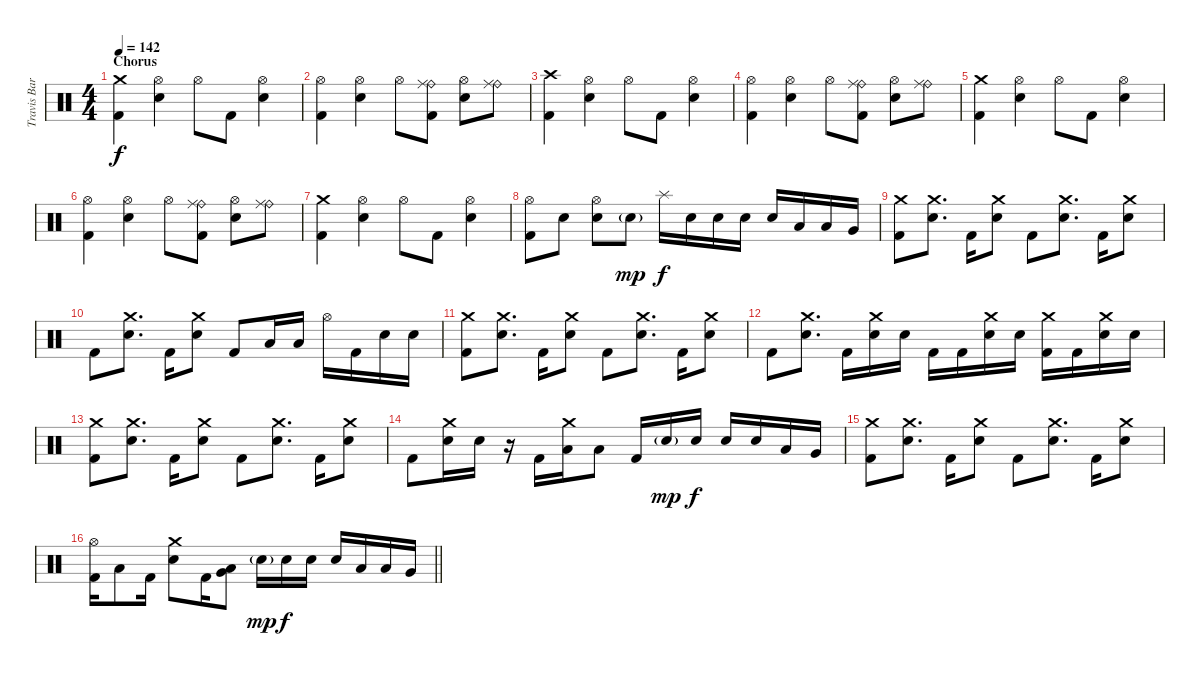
\track ("Travis Barker - Drums" "Travis Bar") {instrument percussion}
\staff {score}
\articulation defaults
\ts (4 4)
\section ("" "Chorus")
\tempo 142
\clef neutral
\ks c
("Crash medium (hit)" "Kick (hit) 2").4{dy f} ("Hi-Hat (open)" "Electric Snare (hit)").4 "Hi-Hat (open)".8 "Kick (hit) 2".8 ("Hi-Hat (open)" "Electric Snare (hit)").4 |
("Hi-Hat (open)" "Kick (hit) 2").4 ("Hi-Hat (open)" "Electric Snare (hit)").4 "Hi-Hat (open)".8 ("Ride (bell)" "Ride (middle)" "Kick (hit) 2").8 ("Hi-Hat (open)" "Electric Snare (hit)").8 ("Ride (bell)" "Ride (middle)").8 |
("Crash high (hit)" "Kick (hit) 2").4 ("Hi-Hat (open)" "Electric Snare (hit)").4 "Hi-Hat (open)".8 "Kick (hit) 2".8 ("Hi-Hat (open)" "Electric Snare (hit)").4 |
("Hi-Hat (open)" "Kick (hit) 2").4 ("Hi-Hat (open)" "Electric Snare (hit)").4 "Hi-Hat (open)".8 ("Ride (bell)" "Ride (middle)" "Kick (hit) 2").8 ("Hi-Hat (open)" "Electric Snare (hit)").8 ("Ride (bell)" "Ride (middle)").8 |
("Crash medium (hit)" "Kick (hit) 2").4 ("Hi-Hat (open)" "Electric Snare (hit)").4 "Hi-Hat (open)".8 "Kick (hit) 2".8 ("Hi-Hat (open)" "Electric Snare (hit)").4 |
("Hi-Hat (open)" "Kick (hit) 2").4 ("Hi-Hat (open)" "Electric Snare (hit)").4 "Hi-Hat (open)".8 ("Ride (bell)" "Ride (middle)" "Kick (hit) 2").8 ("Hi-Hat (open)" "Electric Snare (hit)").8 ("Ride (bell)" "Ride (middle)").8 |
("Crash medium (hit)" "Kick (hit) 2").4 ("Hi-Hat (open)" "Electric Snare (hit)").4 "Hi-Hat (open)".8 "Kick (hit) 2".8 ("Hi-Hat (open)" "Electric Snare (hit)").4 |
("Hi-Hat (open)" "Kick (hit) 2").8 "Electric Snare (hit)".8 ("Hi-Hat (open)" "Electric Snare (hit)").8 "Electric Snare (hit)"{g}.8{dy mp} "Splash (hit)".16{dy f} "Electric Snare (hit)".16 "Electric Snare (hit)".16 "Electric Snare (hit)".16 "Electric Snare (hit)".16 "Low Tom (hit)".16 "Low Tom (hit)".16 "Very Low Tom (hit)".16 |
("Crash medium (hit)" "Kick (hit) 2").8 ("Crash medium (hit)" "Electric Snare (hit)").8{d} "Kick (hit) 2".16 ("Crash medium (hit)" "Electric Snare (hit)").8 "Kick (hit) 2".8 ("Crash medium (hit)" "Electric Snare (hit)").8{d} "Kick (hit) 2".16 ("Crash medium (hit)" "Electric Snare (hit)").8 |
"Kick (hit) 2".8 ("Crash medium (hit)" "Electric Snare (hit)").8{d} "Kick (hit) 2".16 ("Crash medium (hit)" "Electric Snare (hit)").8 "Kick (hit) 2".8 "Low Tom (hit)".16 "Low Tom (hit)".16 "Hi-Hat (open)".16 "Kick (hit) 2".16 "Electric Snare (hit)".16 "Electric Snare (hit)".16 |
("Crash medium (hit)" "Kick (hit) 2").8 ("Crash medium (hit)" "Electric Snare (hit)").8{d} "Kick (hit) 2".16 ("Crash medium (hit)" "Electric Snare (hit)").8 "Kick (hit) 2".8 ("Crash medium (hit)" "Electric Snare (hit)").8{d} "Kick (hit) 2".16 ("Crash medium (hit)" "Electric Snare (hit)").8 |
"Kick (hit) 2".8 ("Crash medium (hit)" "Electric Snare (hit)").8{d} "Kick (hit) 2".16 ("Crash medium (hit)" "Electric Snare (hit)").16 "Electric Snare (hit)".16 "Kick (hit) 2".16 "Kick (hit) 2".16 ("Crash medium (hit)" "Electric Snare (hit)").16 "Electric Snare (hit)".16 ("Crash medium (hit)" "Kick (hit) 2").16 "Kick (hit) 2".16 ("Crash medium (hit)" "Electric Snare (hit)").16 "Electric Snare (hit)".16 |
("Crash medium (hit)" "Kick (hit) 2").8 ("Crash medium (hit)" "Electric Snare (hit)").8{d} "Kick (hit) 2".16 ("Crash medium (hit)" "Electric Snare (hit)").8 "Kick (hit) 2".8 ("Crash medium (hit)" "Electric Snare (hit)").8{d} "Kick (hit) 2".16 ("Crash medium (hit)" "Electric Snare (hit)").8 |
"Kick (hit) 2".8 ("Crash medium (hit)" "Electric Snare (hit)").16 "Electric Snare (hit)".16 r.16 "Kick (hit) 2".16 ("Crash medium (hit)" "Low Tom (hit)").16 "Low Tom (hit)".8 "Kick (hit) 2".16 "Electric Snare (hit)"{g}.16{dy mp} "Electric Snare (hit)".16{dy f} "Electric Snare (hit)".16 "Electric Snare (hit)".16 "Low Tom (hit)".16 "Very Low Tom (hit)".16 |
("Crash medium (hit)" "Kick (hit) 2").8 ("Crash medium (hit)" "Electric Snare (hit)").8{d} "Kick (hit) 2".16 ("Crash medium (hit)" "Electric Snare (hit)").8 "Kick (hit) 2".8 ("Crash medium (hit)" "Electric Snare (hit)").8{d} "Kick (hit) 2".16 ("Crash medium (hit)" "Electric Snare (hit)").8 |
\barLineRight lightlight
("Hi-Hat (open)" "Kick (hit) 2").16 "Low Tom (hit)".8 "Kick (hit) 2".16 ("Crash medium (hit)" "Electric Snare (hit)").8 "Kick (hit) 2".16 ("Very Low Tom (hit)" "Low Tom (hit)").8 "Electric Snare (hit)"{g}.16{dy mp} "Electric Snare (hit)".16{dy f} "Electric Snare (hit)".16 "Electric Snare (hit)".16 "Low Tom (hit)".16 "Low Tom (hit)".16 "Very Low Tom (hit)".16
